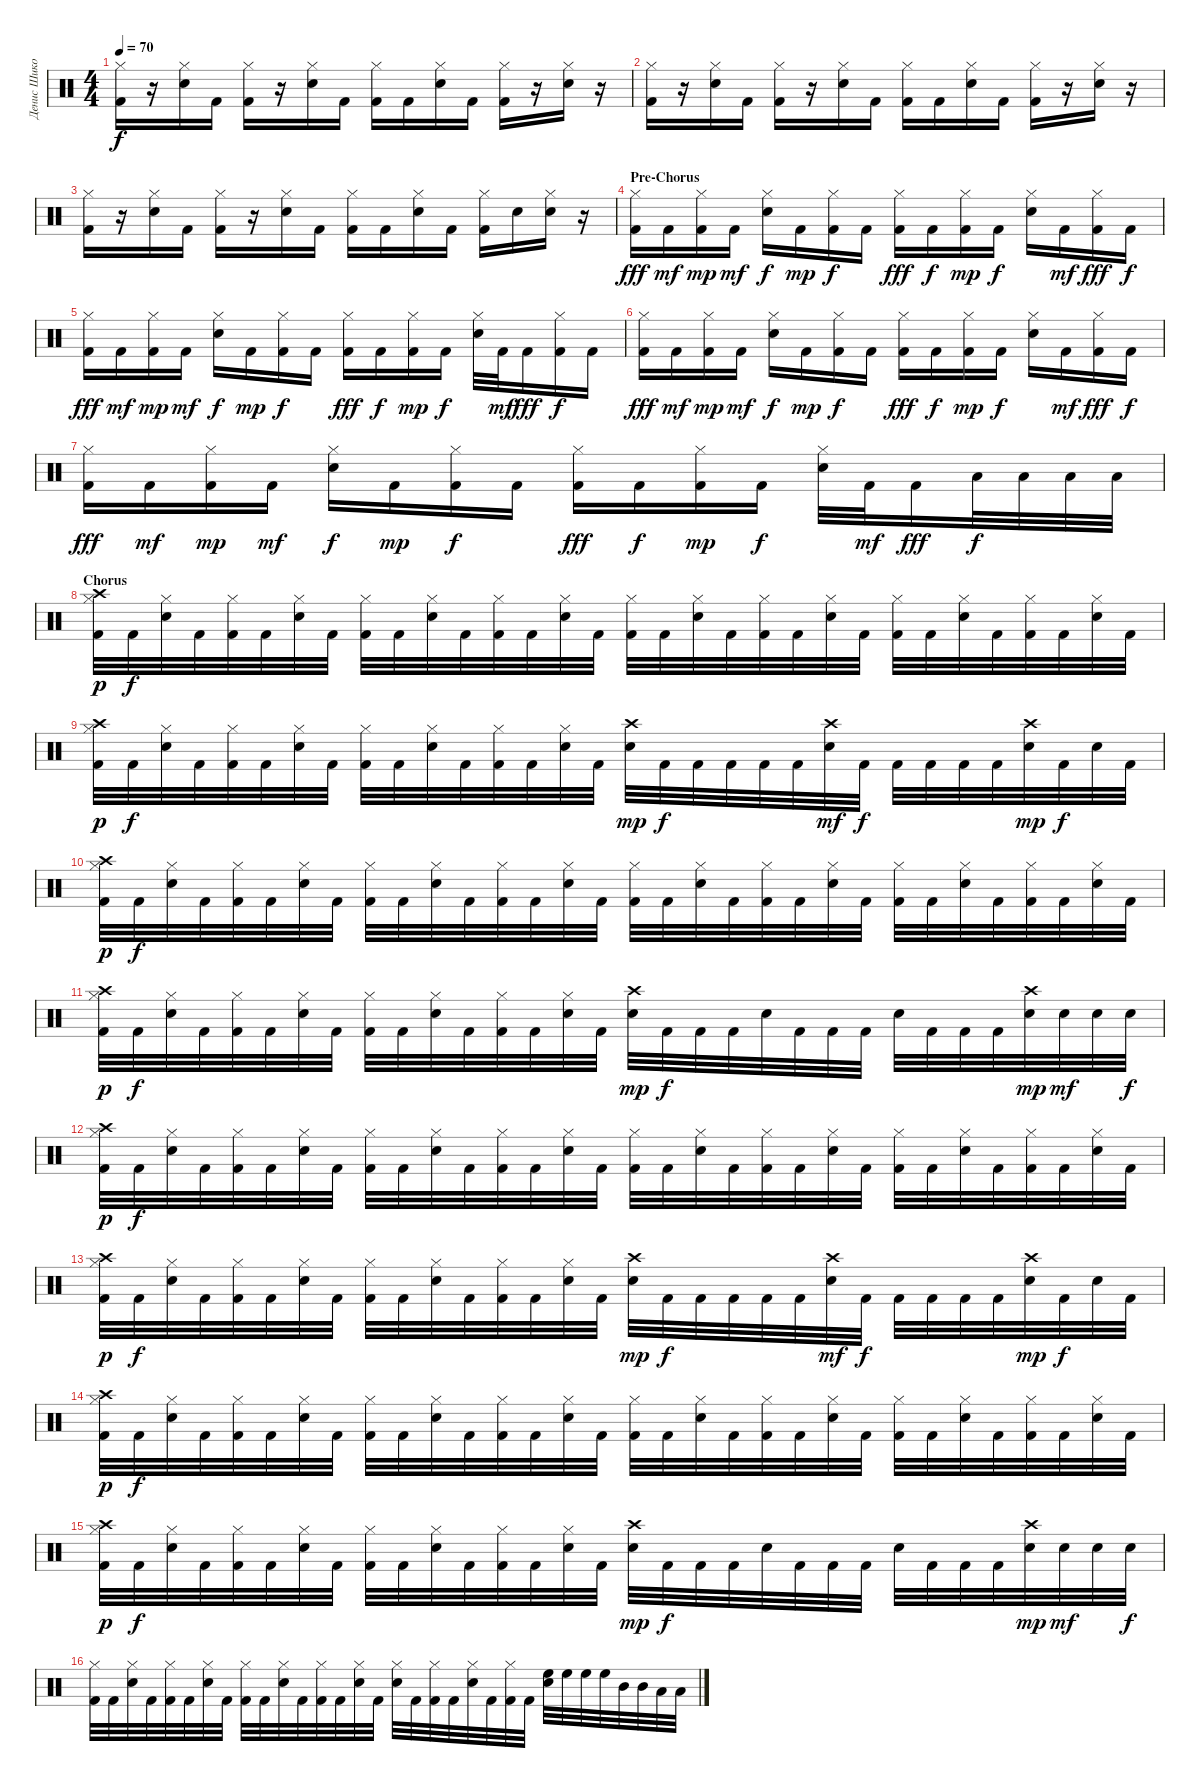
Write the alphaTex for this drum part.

\track ("Денис Шиков" "Денис Шико") {instrument percussion}
\staff {score}
\articulation defaults
\ts (4 4)
\tempo 70
\clef neutral
\ks c
("Hi-Hat (closed)" "Kick (hit) 2").16{dy f} r.16 ("Hi-Hat (closed)" "Electric Snare (hit)").16 "Kick (hit) 2".16 ("Hi-Hat (closed)" "Kick (hit) 2").16 r.16 ("Hi-Hat (closed)" "Electric Snare (hit)").16 "Kick (hit) 2".16 ("Hi-Hat (closed)" "Kick (hit) 2").16 "Kick (hit) 2".16 ("Hi-Hat (closed)" "Electric Snare (hit)").16 "Kick (hit) 2".16 ("Hi-Hat (closed)" "Kick (hit) 2").16 r.16 ("Hi-Hat (closed)" "Electric Snare (hit)").16 r.16 |
("Hi-Hat (closed)" "Kick (hit) 2").16 r.16 ("Hi-Hat (closed)" "Electric Snare (hit)").16 "Kick (hit) 2".16 ("Hi-Hat (closed)" "Kick (hit) 2").16 r.16 ("Hi-Hat (closed)" "Electric Snare (hit)").16 "Kick (hit) 2".16 ("Hi-Hat (closed)" "Kick (hit) 2").16 "Kick (hit) 2".16 ("Hi-Hat (closed)" "Electric Snare (hit)").16 "Kick (hit) 2".16 ("Hi-Hat (closed)" "Kick (hit) 2").16 r.16 ("Hi-Hat (closed)" "Electric Snare (hit)").16 r.16 |
("Hi-Hat (closed)" "Kick (hit) 2").16 r.16 ("Hi-Hat (closed)" "Electric Snare (hit)").16 "Kick (hit) 2".16 ("Hi-Hat (closed)" "Kick (hit) 2").16 r.16 ("Hi-Hat (closed)" "Electric Snare (hit)").16 "Kick (hit) 2".16 ("Hi-Hat (closed)" "Kick (hit) 2").16 "Kick (hit) 2".16 ("Hi-Hat (closed)" "Electric Snare (hit)").16 "Kick (hit) 2".16 ("Hi-Hat (closed)" "Kick (hit) 2").16 "Electric Snare (hit)".16 ("Hi-Hat (closed)" "Electric Snare (hit)").16 r.16 |
\section ("" "Pre-Chorus")
("Hi-Hat (closed)" "Kick (hit) 2").16{dy fff} "Kick (hit) 2".16{dy mf} ("Hi-Hat (closed)" "Kick (hit) 2").16{dy mp} "Kick (hit) 2".16{dy mf} ("Hi-Hat (closed)" "Electric Snare (hit)").16{dy f} "Kick (hit) 2".16{dy mp} ("Hi-Hat (closed)" "Kick (hit) 2").16{dy f} "Kick (hit) 2".16 ("Hi-Hat (closed)" "Kick (hit) 2").16{dy fff} "Kick (hit) 2".16{dy f} ("Hi-Hat (closed)" "Kick (hit) 2").16{dy mp} "Kick (hit) 2".16{dy f} ("Hi-Hat (closed)" "Electric Snare (hit)").16 "Kick (hit) 2".16{dy mf} ("Hi-Hat (closed)" "Kick (hit) 2").16{dy fff} "Kick (hit) 2".16{dy f} |
("Hi-Hat (closed)" "Kick (hit) 2").16{dy fff} "Kick (hit) 2".16{dy mf} ("Hi-Hat (closed)" "Kick (hit) 2").16{dy mp} "Kick (hit) 2".16{dy mf} ("Hi-Hat (closed)" "Electric Snare (hit)").16{dy f} "Kick (hit) 2".16{dy mp} ("Hi-Hat (closed)" "Kick (hit) 2").16{dy f} "Kick (hit) 2".16 ("Hi-Hat (closed)" "Kick (hit) 2").16{dy fff} "Kick (hit) 2".16{dy f} ("Hi-Hat (closed)" "Kick (hit) 2").16{dy mp} "Kick (hit) 2".16{dy f} ("Hi-Hat (closed)" "Electric Snare (hit)").32 "Kick (hit) 2".32{dy mf} "Kick (hit) 2".16{dy fff} ("Hi-Hat (closed)" "Kick (hit) 2").16{dy f} "Kick (hit) 2".16 |
("Hi-Hat (closed)" "Kick (hit) 2").16{dy fff} "Kick (hit) 2".16{dy mf} ("Hi-Hat (closed)" "Kick (hit) 2").16{dy mp} "Kick (hit) 2".16{dy mf} ("Hi-Hat (closed)" "Electric Snare (hit)").16{dy f} "Kick (hit) 2".16{dy mp} ("Hi-Hat (closed)" "Kick (hit) 2").16{dy f} "Kick (hit) 2".16 ("Hi-Hat (closed)" "Kick (hit) 2").16{dy fff} "Kick (hit) 2".16{dy f} ("Hi-Hat (closed)" "Kick (hit) 2").16{dy mp} "Kick (hit) 2".16{dy f} ("Hi-Hat (closed)" "Electric Snare (hit)").16 "Kick (hit) 2".16{dy mf} ("Hi-Hat (closed)" "Kick (hit) 2").16{dy fff} "Kick (hit) 2".16{dy f} |
("Hi-Hat (closed)" "Kick (hit) 2").16{dy fff} "Kick (hit) 2".16{dy mf} ("Hi-Hat (closed)" "Kick (hit) 2").16{dy mp} "Kick (hit) 2".16{dy mf} ("Hi-Hat (closed)" "Electric Snare (hit)").16{dy f} "Kick (hit) 2".16{dy mp} ("Hi-Hat (closed)" "Kick (hit) 2").16{dy f} "Kick (hit) 2".16 ("Hi-Hat (closed)" "Kick (hit) 2").16{dy fff} "Kick (hit) 2".16{dy f} ("Hi-Hat (closed)" "Kick (hit) 2").16{dy mp} "Kick (hit) 2".16{dy f} ("Hi-Hat (closed)" "Electric Snare (hit)").32 "Kick (hit) 2".32{dy mf} "Kick (hit) 2".16{dy fff} "Low Floor Tom (hit)".32{dy f} "Low Floor Tom (hit)".32 "Low Tom (hit)".32 "Low Floor Tom (hit)".32 |
\section ("" "Chorus")
("Crash high (hit)" "Hi-Hat (closed)" "Kick (hit) 2").32{dy p} "Kick (hit) 2".32{dy f} ("Hi-Hat (closed)" "Electric Snare (hit)").32 "Kick (hit) 2".32 ("Hi-Hat (closed)" "Kick (hit) 2").32 "Kick (hit) 2".32 ("Hi-Hat (closed)" "Electric Snare (hit)").32 "Kick (hit) 2".32 ("Hi-Hat (closed)" "Kick (hit) 2").32 "Kick (hit) 2".32 ("Hi-Hat (closed)" "Electric Snare (hit)").32 "Kick (hit) 2".32 ("Hi-Hat (closed)" "Kick (hit) 2").32 "Kick (hit) 2".32 ("Hi-Hat (closed)" "Electric Snare (hit)").32 "Kick (hit) 2".32 ("Hi-Hat (closed)" "Kick (hit) 2").32 "Kick (hit) 2".32 ("Hi-Hat (closed)" "Electric Snare (hit)").32 "Kick (hit) 2".32 ("Hi-Hat (closed)" "Kick (hit) 2").32 "Kick (hit) 2".32 ("Hi-Hat (closed)" "Electric Snare (hit)").32 "Kick (hit) 2".32 ("Hi-Hat (closed)" "Kick (hit) 2").32 "Kick (hit) 2".32 ("Hi-Hat (closed)" "Electric Snare (hit)").32 "Kick (hit) 2".32 ("Hi-Hat (closed)" "Kick (hit) 2").32 "Kick (hit) 2".32 ("Hi-Hat (closed)" "Electric Snare (hit)").32 "Kick (hit) 2".32 |
("Crash high (hit)" "Hi-Hat (closed)" "Kick (hit) 2").32{dy p} "Kick (hit) 2".32{dy f} ("Hi-Hat (closed)" "Electric Snare (hit)").32 "Kick (hit) 2".32 ("Hi-Hat (closed)" "Kick (hit) 2").32 "Kick (hit) 2".32 ("Hi-Hat (closed)" "Electric Snare (hit)").32 "Kick (hit) 2".32 ("Hi-Hat (closed)" "Kick (hit) 2").32 "Kick (hit) 2".32 ("Hi-Hat (closed)" "Electric Snare (hit)").32 "Kick (hit) 2".32 ("Hi-Hat (closed)" "Kick (hit) 2").32 "Kick (hit) 2".32 ("Hi-Hat (closed)" "Electric Snare (hit)").32 "Kick (hit) 2".32 ("Crash high (hit)" "Electric Snare (hit)").32{dy mp} "Kick (hit) 2".32{dy f} "Kick (hit) 2".32 "Kick (hit) 2".32 "Kick (hit) 2".32 "Kick (hit) 2".32 ("Crash high (hit)" "Electric Snare (hit)").32{dy mf} "Kick (hit) 2".32{dy f} "Kick (hit) 2".32 "Kick (hit) 2".32 "Kick (hit) 2".32 "Kick (hit) 2".32 ("Crash high (hit)" "Electric Snare (hit)").32{dy mp} "Kick (hit) 2".32{dy f} "Electric Snare (hit)".32 "Kick (hit) 2".32 |
("Crash high (hit)" "Hi-Hat (closed)" "Kick (hit) 2").32{dy p} "Kick (hit) 2".32{dy f} ("Hi-Hat (closed)" "Electric Snare (hit)").32 "Kick (hit) 2".32 ("Hi-Hat (closed)" "Kick (hit) 2").32 "Kick (hit) 2".32 ("Hi-Hat (closed)" "Electric Snare (hit)").32 "Kick (hit) 2".32 ("Hi-Hat (closed)" "Kick (hit) 2").32 "Kick (hit) 2".32 ("Hi-Hat (closed)" "Electric Snare (hit)").32 "Kick (hit) 2".32 ("Hi-Hat (closed)" "Kick (hit) 2").32 "Kick (hit) 2".32 ("Hi-Hat (closed)" "Electric Snare (hit)").32 "Kick (hit) 2".32 ("Hi-Hat (closed)" "Kick (hit) 2").32 "Kick (hit) 2".32 ("Hi-Hat (closed)" "Electric Snare (hit)").32 "Kick (hit) 2".32 ("Hi-Hat (closed)" "Kick (hit) 2").32 "Kick (hit) 2".32 ("Hi-Hat (closed)" "Electric Snare (hit)").32 "Kick (hit) 2".32 ("Hi-Hat (closed)" "Kick (hit) 2").32 "Kick (hit) 2".32 ("Hi-Hat (closed)" "Electric Snare (hit)").32 "Kick (hit) 2".32 ("Hi-Hat (closed)" "Kick (hit) 2").32 "Kick (hit) 2".32 ("Hi-Hat (closed)" "Electric Snare (hit)").32 "Kick (hit) 2".32 |
("Crash high (hit)" "Hi-Hat (closed)" "Kick (hit) 2").32{dy p} "Kick (hit) 2".32{dy f} ("Hi-Hat (closed)" "Electric Snare (hit)").32 "Kick (hit) 2".32 ("Hi-Hat (closed)" "Kick (hit) 2").32 "Kick (hit) 2".32 ("Hi-Hat (closed)" "Electric Snare (hit)").32 "Kick (hit) 2".32 ("Hi-Hat (closed)" "Kick (hit) 2").32 "Kick (hit) 2".32 ("Hi-Hat (closed)" "Electric Snare (hit)").32 "Kick (hit) 2".32 ("Hi-Hat (closed)" "Kick (hit) 2").32 "Kick (hit) 2".32 ("Hi-Hat (closed)" "Electric Snare (hit)").32 "Kick (hit) 2".32 ("Crash high (hit)" "Electric Snare (hit)").32{dy mp} "Kick (hit) 2".32{dy f} "Kick (hit) 2".32 "Kick (hit) 2".32 "Electric Snare (hit)".32 "Kick (hit) 2".32 "Kick (hit) 2".32 "Kick (hit) 2".32 "Electric Snare (hit)".32 "Kick (hit) 2".32 "Kick (hit) 2".32 "Kick (hit) 2".32 ("Crash high (hit)" "Electric Snare (hit)").32{dy mp} "Electric Snare (hit)".32{dy mf} "Electric Snare (hit)".32 "Electric Snare (hit)".32{dy f} |
("Crash high (hit)" "Hi-Hat (closed)" "Kick (hit) 2").32{dy p} "Kick (hit) 2".32{dy f} ("Hi-Hat (closed)" "Electric Snare (hit)").32 "Kick (hit) 2".32 ("Hi-Hat (closed)" "Kick (hit) 2").32 "Kick (hit) 2".32 ("Hi-Hat (closed)" "Electric Snare (hit)").32 "Kick (hit) 2".32 ("Hi-Hat (closed)" "Kick (hit) 2").32 "Kick (hit) 2".32 ("Hi-Hat (closed)" "Electric Snare (hit)").32 "Kick (hit) 2".32 ("Hi-Hat (closed)" "Kick (hit) 2").32 "Kick (hit) 2".32 ("Hi-Hat (closed)" "Electric Snare (hit)").32 "Kick (hit) 2".32 ("Hi-Hat (closed)" "Kick (hit) 2").32 "Kick (hit) 2".32 ("Hi-Hat (closed)" "Electric Snare (hit)").32 "Kick (hit) 2".32 ("Hi-Hat (closed)" "Kick (hit) 2").32 "Kick (hit) 2".32 ("Hi-Hat (closed)" "Electric Snare (hit)").32 "Kick (hit) 2".32 ("Hi-Hat (closed)" "Kick (hit) 2").32 "Kick (hit) 2".32 ("Hi-Hat (closed)" "Electric Snare (hit)").32 "Kick (hit) 2".32 ("Hi-Hat (closed)" "Kick (hit) 2").32 "Kick (hit) 2".32 ("Hi-Hat (closed)" "Electric Snare (hit)").32 "Kick (hit) 2".32 |
("Crash high (hit)" "Hi-Hat (closed)" "Kick (hit) 2").32{dy p} "Kick (hit) 2".32{dy f} ("Hi-Hat (closed)" "Electric Snare (hit)").32 "Kick (hit) 2".32 ("Hi-Hat (closed)" "Kick (hit) 2").32 "Kick (hit) 2".32 ("Hi-Hat (closed)" "Electric Snare (hit)").32 "Kick (hit) 2".32 ("Hi-Hat (closed)" "Kick (hit) 2").32 "Kick (hit) 2".32 ("Hi-Hat (closed)" "Electric Snare (hit)").32 "Kick (hit) 2".32 ("Hi-Hat (closed)" "Kick (hit) 2").32 "Kick (hit) 2".32 ("Hi-Hat (closed)" "Electric Snare (hit)").32 "Kick (hit) 2".32 ("Crash high (hit)" "Electric Snare (hit)").32{dy mp} "Kick (hit) 2".32{dy f} "Kick (hit) 2".32 "Kick (hit) 2".32 "Kick (hit) 2".32 "Kick (hit) 2".32 ("Crash high (hit)" "Electric Snare (hit)").32{dy mf} "Kick (hit) 2".32{dy f} "Kick (hit) 2".32 "Kick (hit) 2".32 "Kick (hit) 2".32 "Kick (hit) 2".32 ("Crash high (hit)" "Electric Snare (hit)").32{dy mp} "Kick (hit) 2".32{dy f} "Electric Snare (hit)".32 "Kick (hit) 2".32 |
("Crash high (hit)" "Hi-Hat (closed)" "Kick (hit) 2").32{dy p} "Kick (hit) 2".32{dy f} ("Hi-Hat (closed)" "Electric Snare (hit)").32 "Kick (hit) 2".32 ("Hi-Hat (closed)" "Kick (hit) 2").32 "Kick (hit) 2".32 ("Hi-Hat (closed)" "Electric Snare (hit)").32 "Kick (hit) 2".32 ("Hi-Hat (closed)" "Kick (hit) 2").32 "Kick (hit) 2".32 ("Hi-Hat (closed)" "Electric Snare (hit)").32 "Kick (hit) 2".32 ("Hi-Hat (closed)" "Kick (hit) 2").32 "Kick (hit) 2".32 ("Hi-Hat (closed)" "Electric Snare (hit)").32 "Kick (hit) 2".32 ("Hi-Hat (closed)" "Kick (hit) 2").32 "Kick (hit) 2".32 ("Hi-Hat (closed)" "Electric Snare (hit)").32 "Kick (hit) 2".32 ("Hi-Hat (closed)" "Kick (hit) 2").32 "Kick (hit) 2".32 ("Hi-Hat (closed)" "Electric Snare (hit)").32 "Kick (hit) 2".32 ("Hi-Hat (closed)" "Kick (hit) 2").32 "Kick (hit) 2".32 ("Hi-Hat (closed)" "Electric Snare (hit)").32 "Kick (hit) 2".32 ("Hi-Hat (closed)" "Kick (hit) 2").32 "Kick (hit) 2".32 ("Hi-Hat (closed)" "Electric Snare (hit)").32 "Kick (hit) 2".32 |
("Crash high (hit)" "Hi-Hat (closed)" "Kick (hit) 2").32{dy p} "Kick (hit) 2".32{dy f} ("Hi-Hat (closed)" "Electric Snare (hit)").32 "Kick (hit) 2".32 ("Hi-Hat (closed)" "Kick (hit) 2").32 "Kick (hit) 2".32 ("Hi-Hat (closed)" "Electric Snare (hit)").32 "Kick (hit) 2".32 ("Hi-Hat (closed)" "Kick (hit) 2").32 "Kick (hit) 2".32 ("Hi-Hat (closed)" "Electric Snare (hit)").32 "Kick (hit) 2".32 ("Hi-Hat (closed)" "Kick (hit) 2").32 "Kick (hit) 2".32 ("Hi-Hat (closed)" "Electric Snare (hit)").32 "Kick (hit) 2".32 ("Crash high (hit)" "Electric Snare (hit)").32{dy mp} "Kick (hit) 2".32{dy f} "Kick (hit) 2".32 "Kick (hit) 2".32 "Electric Snare (hit)".32 "Kick (hit) 2".32 "Kick (hit) 2".32 "Kick (hit) 2".32 "Electric Snare (hit)".32 "Kick (hit) 2".32 "Kick (hit) 2".32 "Kick (hit) 2".32 ("Crash high (hit)" "Electric Snare (hit)").32{dy mp} "Electric Snare (hit)".32{dy mf} "Electric Snare (hit)".32 "Electric Snare (hit)".32{dy f} |
("Hi-Hat (closed)" "Kick (hit) 2").32 "Kick (hit) 2".32 ("Hi-Hat (closed)" "Electric Snare (hit)").32 "Kick (hit) 2".32 ("Hi-Hat (closed)" "Kick (hit) 2").32 "Kick (hit) 2".32 ("Hi-Hat (closed)" "Electric Snare (hit)").32 "Kick (hit) 2".32 ("Hi-Hat (closed)" "Kick (hit) 2").32 "Kick (hit) 2".32 ("Hi-Hat (closed)" "Electric Snare (hit)").32 "Kick (hit) 2".32 ("Hi-Hat (closed)" "Kick (hit) 2").32 "Kick (hit) 2".32 ("Hi-Hat (closed)" "Electric Snare (hit)").32 "Kick (hit) 2".32 ("Hi-Hat (closed)" "Electric Snare (hit)").32 "Kick (hit) 2".32 ("Hi-Hat (closed)" "Kick (hit) 2").32 "Kick (hit) 2".32 ("Hi-Hat (closed)" "Electric Snare (hit)").32 "Kick (hit) 2".32 ("Hi-Hat (closed)" "Kick (hit) 2").32 "Kick (hit) 2".32 ("Electric Snare (hit)" "High Floor Tom (hit)").32 "High Floor Tom (hit)".32 "High Floor Tom (hit)".32 "High Floor Tom (hit)".32 "Mid Tom (hit)".32 "Mid Tom (hit)".32 "Low Tom (hit)".32 "Low Floor Tom (hit)".32
